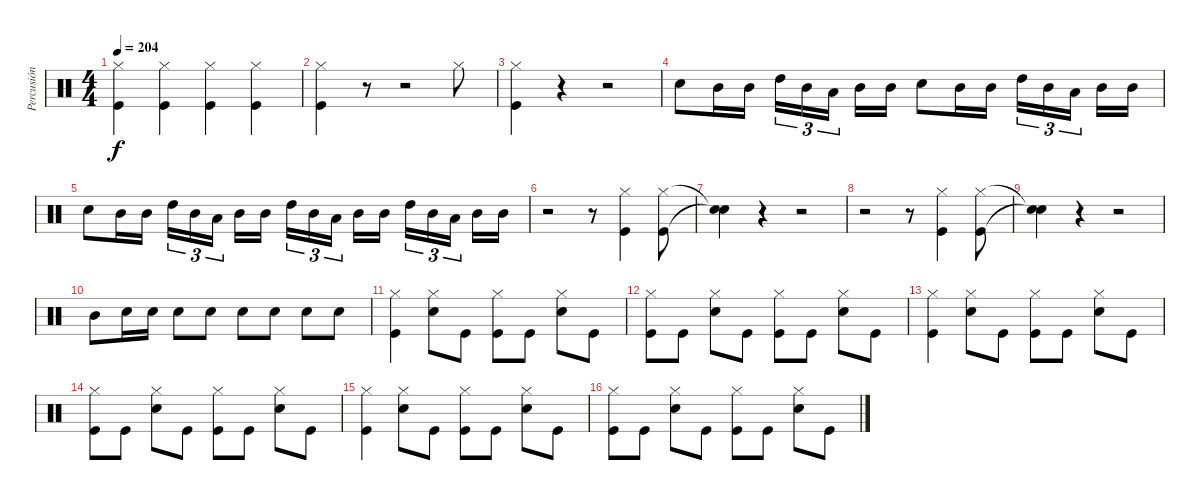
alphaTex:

\track ("Percusión" "Percusión") {instrument percussion}
\staff {score}
\articulation defaults
\ts (4 4)
\tempo 204
\clef neutral
\ks c
("Hi-Hat (closed)" "Kick (hit)").4{dy f} ("Hi-Hat (closed)" "Kick (hit)").4 ("Hi-Hat (closed)" "Kick (hit)").4 ("Hi-Hat (closed)" "Kick (hit)").4 |
("Hi-Hat (closed)" "Kick (hit)").4 r.8 r.2 "Hi-Hat (closed)".8 |
("Hi-Hat (closed)" "Kick (hit)").4 r.4 r.2 |
"Snare (hit) 2".8 "Mid Tom (hit)".16 "Mid Tom (hit)".16 "High Tom (hit)".16{tu (3 2)} "Mid Tom (hit)".16{tu (3 2)} "Low Tom (hit)".16{tu (3 2) beam splitsecondary} "Mid Tom (hit)".16 "Mid Tom (hit)".16 "Snare (hit) 2".8 "Mid Tom (hit)".16 "Mid Tom (hit)".16 "High Tom (hit)".16{tu (3 2)} "Mid Tom (hit)".16{tu (3 2)} "Low Tom (hit)".16{tu (3 2) beam splitsecondary} "Mid Tom (hit)".16 "Mid Tom (hit)".16 |
"Snare (hit) 2".8 "Mid Tom (hit)".16 "Mid Tom (hit)".16 "High Tom (hit)".16{tu (3 2)} "Mid Tom (hit)".16{tu (3 2)} "Low Tom (hit)".16{tu (3 2) beam splitsecondary} "Mid Tom (hit)".16 "Mid Tom (hit)".16 "High Tom (hit)".16{tu (3 2)} "Mid Tom (hit)".16{tu (3 2)} "Low Tom (hit)".16{tu (3 2) beam splitsecondary} "Mid Tom (hit)".16 "Mid Tom (hit)".16 "High Tom (hit)".16{tu (3 2)} "Mid Tom (hit)".16{tu (3 2)} "Low Tom (hit)".16{tu (3 2) beam splitsecondary} "Mid Tom (hit)".16 "Mid Tom (hit)".16 |
r.2 r.8 ("Hi-Hat (closed)" "Kick (hit)").4 ("Hi-Hat (closed)" "Kick (hit)").8 |
("Snare (hit)"{t} "Snare (hit)"{t}).4 r.4 r.2 |
r.2 r.8 ("Hi-Hat (closed)" "Kick (hit)").4 ("Hi-Hat (closed)" "Kick (hit)").8 |
("Snare (hit)"{t} "Snare (hit)"{t}).4 r.4 r.2 |
"Mid Tom (hit)".8 "Snare (hit) 2".16 "Snare (hit) 2".16 "Snare (hit) 2".8 "Snare (hit) 2".8 "Snare (hit) 2".8 "Snare (hit) 2".8 "Snare (hit) 2".8 "Snare (hit) 2".8 |
("Hi-Hat (closed)" "Kick (hit)").4 ("Hi-Hat (closed)" "Snare (hit) 2").8 "Kick (hit)".8 ("Hi-Hat (closed)" "Kick (hit)").8 "Kick (hit)".8 ("Hi-Hat (closed)" "Snare (hit) 2").8 "Kick (hit)".8 |
("Hi-Hat (closed)" "Kick (hit)").8 "Kick (hit)".8 ("Hi-Hat (closed)" "Snare (hit) 2").8 "Kick (hit)".8 ("Hi-Hat (closed)" "Kick (hit)").8 "Kick (hit)".8 ("Hi-Hat (closed)" "Snare (hit) 2").8 "Kick (hit)".8 |
("Hi-Hat (closed)" "Kick (hit)").4 ("Hi-Hat (closed)" "Snare (hit) 2").8 "Kick (hit)".8 ("Hi-Hat (closed)" "Kick (hit)").8 "Kick (hit)".8 ("Hi-Hat (closed)" "Snare (hit) 2").8 "Kick (hit)".8 |
("Hi-Hat (closed)" "Kick (hit)").8 "Kick (hit)".8 ("Hi-Hat (closed)" "Snare (hit) 2").8 "Kick (hit)".8 ("Hi-Hat (closed)" "Kick (hit)").8 "Kick (hit)".8 ("Hi-Hat (closed)" "Snare (hit) 2").8 "Kick (hit)".8 |
("Hi-Hat (closed)" "Kick (hit)").4 ("Hi-Hat (closed)" "Snare (hit) 2").8 "Kick (hit)".8 ("Hi-Hat (closed)" "Kick (hit)").8 "Kick (hit)".8 ("Hi-Hat (closed)" "Snare (hit) 2").8 "Kick (hit)".8 |
("Hi-Hat (closed)" "Kick (hit)").8 "Kick (hit)".8 ("Hi-Hat (closed)" "Snare (hit) 2").8 "Kick (hit)".8 ("Hi-Hat (closed)" "Kick (hit)").8 "Kick (hit)".8 ("Hi-Hat (closed)" "Snare (hit) 2").8 "Kick (hit)".8
